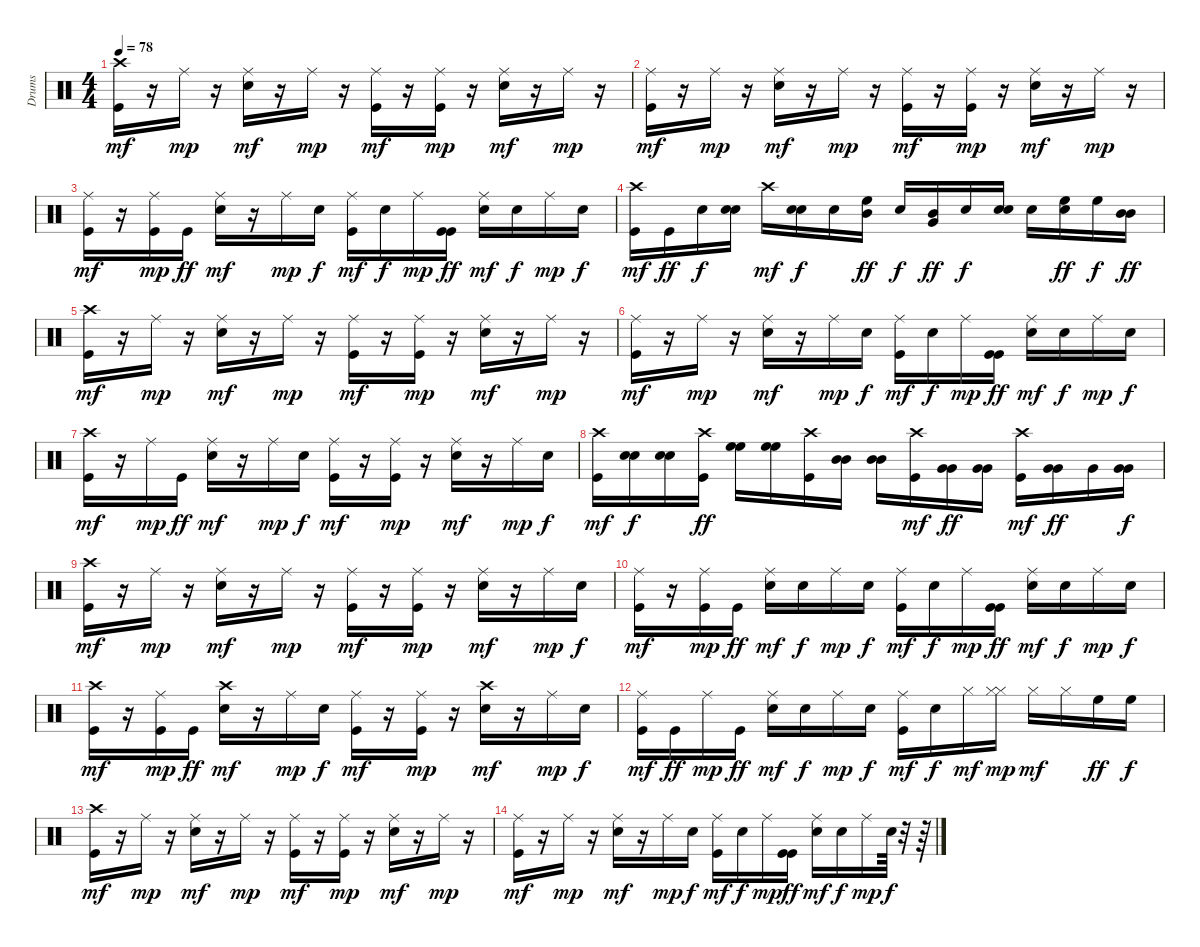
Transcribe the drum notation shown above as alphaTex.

\track ("Drums" "Drums") {instrument percussion}
\staff {score}
\articulation defaults
\ts (4 4)
\tempo 78
\clef neutral
\ks c
("Kick (hit)" "Crash high (hit)").16{dy mf} r.16 "Ride (middle)".16{dy mp} r.16 ("Snare (hit) 2" "Ride (middle)").16{dy mf} r.16 "Ride (middle)".16{dy mp} r.16 ("Kick (hit)" "Ride (middle)").16{dy mf} r.16 ("Kick (hit)" "Ride (middle)").16{dy mp} r.16 ("Snare (hit) 2" "Ride (middle)").16{dy mf} r.16 "Ride (middle)".16{dy mp} r.16 |
("Kick (hit)" "Ride (middle)").16{dy mf} r.16 "Ride (middle)".16{dy mp} r.16 ("Snare (hit) 2" "Ride (middle)").16{dy mf} r.16 "Ride (middle)".16{dy mp} r.16 ("Kick (hit)" "Ride (middle)").16{dy mf} r.16 ("Kick (hit)" "Ride (middle)").16{dy mp} r.16 ("Snare (hit) 2" "Ride (middle)").16{dy mf} r.16 "Ride (middle)".16{dy mp} r.16 |
("Kick (hit)" "Ride (middle)").16{dy mf} r.16 ("Kick (hit)" "Ride (middle)").16{dy mp} "Kick (hit)".16{dy ff} ("Snare (hit) 2" "Ride (middle)").16{dy mf} r.16 "Ride (middle)".16{dy mp} "Snare (hit) 2".16{dy f} ("Kick (hit)" "Ride (middle)").16{dy mf} "Snare (hit) 2".16{dy f} "Ride (middle)".16{dy mp} ("Kick (hit)" "Kick (hit)").16{dy ff} ("Snare (hit) 2" "Ride (middle)").16{dy mf} "Snare (hit) 2".16{dy f} "Ride (middle)".16{dy mp} "Snare (hit) 2".16{dy f} |
("Kick (hit)" "Crash high (hit)").16{dy mf} "Kick (hit)".16{dy ff} "Snare (hit) 2".16{dy f} ("Snare (hit) 2" "Snare (hit) 2").16 "Crash high (hit)".16{dy mf} ("Snare (hit) 2" "Snare (hit) 2").16{dy f} "Snare (hit) 2".16 ("High Floor Tom (hit)" "Mid Tom (hit)").16{dy ff} "Snare (hit) 2".16{dy f} ("Mid Tom (hit)" "Very Low Tom (hit)").16{dy ff} "Snare (hit) 2".16{dy f} ("Snare (hit) 2" "Snare (hit) 2").16 "Snare (hit) 2".16 ("Snare (hit) 2" "High Floor Tom (hit)").16{dy ff} "High Floor Tom (hit)".16{dy f} ("Mid Tom (hit)" "Mid Tom (hit)").16{dy ff} |
("Kick (hit)" "Crash high (hit)").16{dy mf} r.16 "Ride (middle)".16{dy mp} r.16 ("Snare (hit) 2" "Ride (middle)").16{dy mf} r.16 "Ride (middle)".16{dy mp} r.16 ("Kick (hit)" "Ride (middle)").16{dy mf} r.16 ("Kick (hit)" "Ride (middle)").16{dy mp} r.16 ("Snare (hit) 2" "Ride (middle)").16{dy mf} r.16 "Ride (middle)".16{dy mp} r.16 |
("Kick (hit)" "Ride (middle)").16{dy mf} r.16 "Ride (middle)".16{dy mp} r.16 ("Snare (hit) 2" "Ride (middle)").16{dy mf} r.16 "Ride (middle)".16{dy mp} "Snare (hit) 2".16{dy f} ("Kick (hit)" "Ride (middle)").16{dy mf} "Snare (hit) 2".16{dy f} "Ride (middle)".16{dy mp} ("Kick (hit)" "Kick (hit)").16{dy ff} ("Snare (hit) 2" "Ride (middle)").16{dy mf} "Snare (hit) 2".16{dy f} "Ride (middle)".16{dy mp} "Snare (hit) 2".16{dy f} |
("Kick (hit)" "Crash high (hit)").16{dy mf} r.16 "Ride (middle)".16{dy mp} "Kick (hit)".16{dy ff} ("Snare (hit) 2" "Ride (middle)").16{dy mf} r.16 "Ride (middle)".16{dy mp} "Snare (hit) 2".16{dy f} ("Kick (hit)" "Ride (middle)").16{dy mf} r.16 ("Kick (hit)" "Ride (middle)").16{dy mp} r.16 ("Snare (hit) 2" "Ride (middle)").16{dy mf} r.16 "Ride (middle)".16{dy mp} "Snare (hit) 2".16{dy f} |
("Kick (hit)" "Crash high (hit)").16{dy mf} ("Snare (hit) 2" "Snare (hit) 2").16{dy f} ("Snare (hit) 2" "Snare (hit) 2").16 ("Crash high (hit)" "Kick (hit)").16{dy ff} ("High Floor Tom (hit)" "High Floor Tom (hit)").16 ("High Floor Tom (hit)" "High Floor Tom (hit)").16 ("Crash high (hit)" "Kick (hit)").16 ("Mid Tom (hit)" "Mid Tom (hit)").16 ("Mid Tom (hit)" "Mid Tom (hit)").16 ("Kick (hit)" "Crash high (hit)").16{dy mf} ("Very Low Tom (hit)" "Very Low Tom (hit)").16{dy ff} ("Very Low Tom (hit)" "Very Low Tom (hit)").16 ("Kick (hit)" "Crash high (hit)").16{dy mf} ("Very Low Tom (hit)" "Very Low Tom (hit)").16{dy ff} "Very Low Tom (hit)".16 ("Very Low Tom (hit)" "Very Low Tom (hit)").16{dy f} |
("Kick (hit)" "Crash high (hit)").16{dy mf} r.16 "Ride (middle)".16{dy mp} r.16 ("Snare (hit) 2" "Ride (middle)").16{dy mf} r.16 "Ride (middle)".16{dy mp} r.16 ("Kick (hit)" "Ride (middle)").16{dy mf} r.16 ("Kick (hit)" "Ride (middle)").16{dy mp} r.16 ("Snare (hit) 2" "Ride (middle)").16{dy mf} r.16 "Ride (middle)".16{dy mp} "Snare (hit) 2".16{dy f} |
("Kick (hit)" "Ride (middle)").16{dy mf} r.16 ("Kick (hit)" "Ride (middle)").16{dy mp} "Kick (hit)".16{dy ff} ("Snare (hit) 2" "Ride (middle)").16{dy mf} "Snare (hit) 2".16{dy f} "Ride (middle)".16{dy mp} "Snare (hit) 2".16{dy f} ("Kick (hit)" "Ride (middle)").16{dy mf} "Snare (hit) 2".16{dy f} "Ride (middle)".16{dy mp} ("Kick (hit)" "Kick (hit)").16{dy ff} ("Snare (hit) 2" "Ride (middle)").16{dy mf} "Snare (hit) 2".16{dy f} "Ride (middle)".16{dy mp} "Snare (hit) 2".16{dy f} |
("Kick (hit)" "Crash high (hit)").16{dy mf} r.16 ("Kick (hit)" "Ride (middle)").16{dy mp} "Kick (hit)".16{dy ff} ("Snare (hit) 2" "Crash high (hit)").16{dy mf} r.16 "Ride (middle)".16{dy mp} "Snare (hit) 2".16{dy f} ("Kick (hit)" "Ride (middle)").16{dy mf} r.16 ("Kick (hit)" "Ride (middle)").16{dy mp} r.16 ("Snare (hit) 2" "Crash high (hit)").16{dy mf} r.16 "Ride (middle)".16{dy mp} "Snare (hit) 2".16{dy f} |
("Kick (hit)" "Ride (middle)").16{dy mf} "Kick (hit)".16{dy ff} "Ride (middle)".16{dy mp} "Kick (hit)".16{dy ff} ("Snare (hit) 2" "Ride (middle)").16{dy mf} "Snare (hit) 2".16{dy f} "Ride (middle)".16{dy mp} "Snare (hit) 2".16{dy f} ("Kick (hit)" "Ride (middle)").16{dy mf} "Snare (hit) 2".16{dy f} "Hi-Hat (closed)".16{dy mf} ("Hi-Hat (closed)" "Hi-Hat (closed)").16{dy mp} "Hi-Hat (closed)".16{dy mf} "Hi-Hat (closed)".16 "High Floor Tom (hit)".16{dy ff} "High Floor Tom (hit)".16{dy f} |
("Kick (hit)" "Crash high (hit)").16{dy mf} r.16 "Ride (middle)".16{dy mp} r.16 ("Snare (hit) 2" "Ride (middle)").16{dy mf} r.16 "Ride (middle)".16{dy mp} r.16 ("Kick (hit)" "Ride (middle)").16{dy mf} r.16 ("Kick (hit)" "Ride (middle)").16{dy mp} r.16 ("Snare (hit) 2" "Ride (middle)").16{dy mf} r.16 "Ride (middle)".16{dy mp} r.16 |
("Kick (hit)" "Ride (middle)").16{dy mf} r.16 "Ride (middle)".16{dy mp} r.16 ("Snare (hit) 2" "Ride (middle)").16{dy mf} r.16 "Ride (middle)".16{dy mp} "Snare (hit) 2".16{dy f} ("Kick (hit)" "Ride (middle)").16{dy mf} "Snare (hit) 2".16{dy f} "Ride (middle)".16{dy mp} ("Kick (hit)" "Kick (hit)").16{dy ff} ("Snare (hit) 2" "Ride (middle)").16{dy mf} "Snare (hit) 2".16{dy f} "Ride (middle)".16{dy mp} "Snare (hit) 2".64{dy f} r.32 r.64
